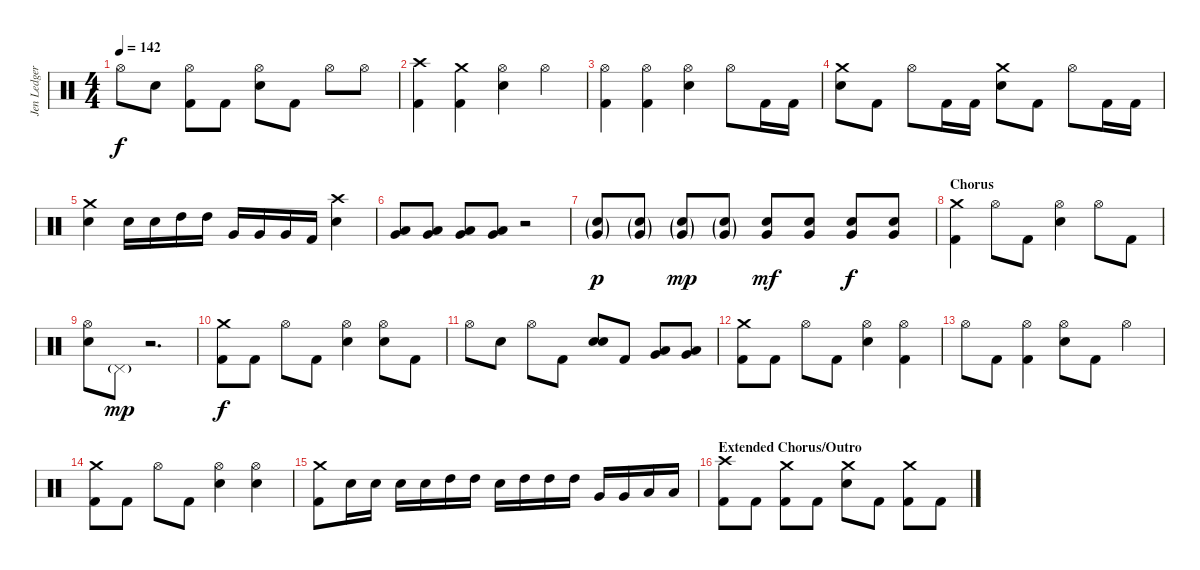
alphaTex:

\track ("Jen Ledger" "Jen Ledger") {instrument percussion}
\staff {score}
\articulation defaults
\ts (4 4)
\tempo 142
\clef neutral
\ks c "Hi-Hat (open)".8{dy f} "Electric Snare (hit)".8
("Hi-Hat (open)" "Kick (hit) 2").8 "Kick (hit) 2".8 ("Hi-Hat (open)" "Electric Snare (hit)").8 "Kick (hit) 2".8 "Hi-Hat (open)".8 "Hi-Hat (open)".8 |
("Crash high (hit)" "Kick (hit) 2").4 ("Crash medium (hit)" "Kick (hit) 2").4 ("Hi-Hat (open)" "Electric Snare (hit)").4 "Hi-Hat (open)".4 |
("Hi-Hat (open)" "Kick (hit) 2").4 ("Hi-Hat (open)" "Kick (hit) 2").4 ("Hi-Hat (open)" "Electric Snare (hit)").4 "Hi-Hat (open)".8 "Kick (hit) 2".16 "Kick (hit) 2".16 |
("Crash medium (hit)" "Electric Snare (hit)").8 "Kick (hit) 2".8 "Hi-Hat (open)".8 "Kick (hit) 2".16 "Kick (hit) 2".16 ("Crash medium (hit)" "Electric Snare (hit)").8 "Kick (hit) 2".8 "Hi-Hat (open)".8 "Kick (hit) 2".16 "Kick (hit) 2".16 |
("Crash medium (hit)" "Electric Snare (hit)").4 "Electric Snare (hit)".16 "Electric Snare (hit)".16 "High Tom (hit)".16 "High Tom (hit)".16 "Very Low Tom (hit)".16 "Very Low Tom (hit)".16 "Very Low Tom (hit)".16 "Kick (hit) 2".16 ("Crash high (hit)" "Electric Snare (hit)").4 |
("Very Low Tom (hit)" "Low Floor Tom (hit)").8 ("Very Low Tom (hit)" "Low Floor Tom (hit)").8 ("Very Low Tom (hit)" "Low Floor Tom (hit)").8 ("Very Low Tom (hit)" "Low Floor Tom (hit)").8 r.2 |
("Electric Snare (hit)"{g} "Very Low Tom (hit)"{g}).8{dy p} ("Electric Snare (hit)"{g} "Very Low Tom (hit)"{g}).8 ("Electric Snare (hit)"{g} "Very Low Tom (hit)"{g}).8{dy mp} ("Electric Snare (hit)"{g} "Very Low Tom (hit)"{g}).8 ("Electric Snare (hit)" "Very Low Tom (hit)").8{dy mf} ("Electric Snare (hit)" "Very Low Tom (hit)").8 ("Electric Snare (hit)" "Very Low Tom (hit)").8{dy f} ("Electric Snare (hit)" "Very Low Tom (hit)").8 |
\section ("" "Chorus")
("Crash medium (hit)" "Kick (hit) 2").4 "Hi-Hat (open)".8 "Kick (hit) 2".8 ("Hi-Hat (open)" "Electric Snare (hit)").4 "Hi-Hat (open)".8 "Kick (hit) 2".8 |
("Hi-Hat (open)" "Electric Snare (hit)").8 "Pedal Hi-Hat (hit)"{g}.8{dy mp} r.2{d} |
("Crash medium (hit)" "Kick (hit) 2").8{dy f} "Kick (hit) 2".8 "Hi-Hat (open)".8 "Kick (hit) 2".8 ("Hi-Hat (open)" "Electric Snare (hit)").4 ("Hi-Hat (open)" "Electric Snare (hit)").8 "Kick (hit) 2".8 |
"Hi-Hat (open)".8 "Electric Snare (hit)".8 "Hi-Hat (open)".8 "Kick (hit) 2".8 ("Electric Snare (hit)" "Electric Snare (hit)").8{bd 60} "Kick (hit) 2".8 ("Very Low Tom (hit)" "Low Floor Tom (hit)").8 ("Very Low Tom (hit)" "Low Floor Tom (hit)").8 |
("Crash medium (hit)" "Kick (hit) 2").8 "Kick (hit) 2".8 "Hi-Hat (open)".8 "Kick (hit) 2".8 ("Hi-Hat (open)" "Electric Snare (hit)").4 ("Hi-Hat (open)" "Kick (hit) 2").4 |
"Hi-Hat (open)".8 "Kick (hit) 2".8 ("Hi-Hat (open)" "Kick (hit) 2").4 ("Hi-Hat (open)" "Electric Snare (hit)").8 "Kick (hit) 2".8 "Hi-Hat (open)".4 |
("Crash medium (hit)" "Kick (hit) 2").8 "Kick (hit) 2".8 "Hi-Hat (open)".8 "Kick (hit) 2".8 ("Hi-Hat (open)" "Electric Snare (hit)").4 ("Hi-Hat (open)" "Electric Snare (hit)").4 |
("Crash medium (hit)" "Kick (hit) 2").8 "Electric Snare (hit)".16 "Electric Snare (hit)".16 "Electric Snare (hit)".16 "Electric Snare (hit)".16 "High Tom (hit)".16 "High Tom (hit)".16 "Electric Snare (hit)".16 "High Tom (hit)".16 "High Tom (hit)".16 "High Tom (hit)".16 "Very Low Tom (hit)".16 "Very Low Tom (hit)".16 "Low Floor Tom (hit)".16 "Low Floor Tom (hit)".16 |
\section ("" "Extended Chorus/Outro")
("Crash high (hit)" "Kick (hit) 2").8 "Kick (hit) 2".8 ("Crash medium (hit)" "Kick (hit) 2").8 "Kick (hit) 2".8 ("Crash medium (hit)" "Electric Snare (hit)").8 "Kick (hit) 2".8 ("Crash medium (hit)" "Kick (hit) 2").8 "Kick (hit) 2".8
